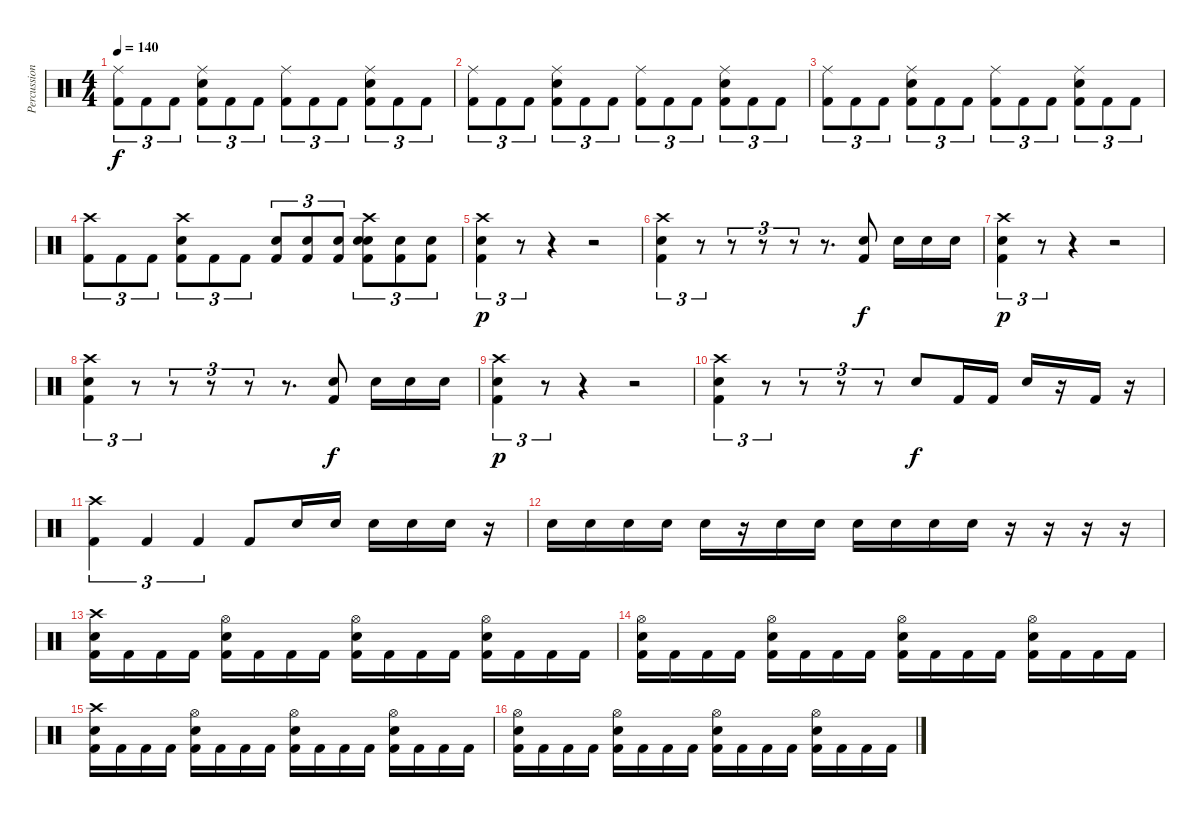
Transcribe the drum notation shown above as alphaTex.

\track ("Percussion" "Percussion") {instrument percussion}
\staff {score}
\articulation defaults
\ts (4 4)
\tempo 140
\clef neutral
\ks c
("Ride (middle)" "Kick (hit) 2").8{tu (3 2) dy f} "Kick (hit) 2".8{tu (3 2)} "Kick (hit) 2".8{tu (3 2)} ("Ride (middle)" "Electric Snare (hit)" "Kick (hit) 2").8{tu (3 2)} "Kick (hit) 2".8{tu (3 2)} "Kick (hit) 2".8{tu (3 2)} ("Ride (middle)" "Kick (hit) 2").8{tu (3 2)} "Kick (hit) 2".8{tu (3 2)} "Kick (hit) 2".8{tu (3 2)} ("Ride (middle)" "Electric Snare (hit)" "Kick (hit) 2").8{tu (3 2)} "Kick (hit) 2".8{tu (3 2)} "Kick (hit) 2".8{tu (3 2)} |
("Ride (middle)" "Kick (hit) 2").8{tu (3 2)} "Kick (hit) 2".8{tu (3 2)} "Kick (hit) 2".8{tu (3 2)} ("Ride (middle)" "Electric Snare (hit)" "Kick (hit) 2").8{tu (3 2)} "Kick (hit) 2".8{tu (3 2)} "Kick (hit) 2".8{tu (3 2)} ("Ride (middle)" "Kick (hit) 2").8{tu (3 2)} "Kick (hit) 2".8{tu (3 2)} "Kick (hit) 2".8{tu (3 2)} ("Ride (middle)" "Electric Snare (hit)" "Kick (hit) 2").8{tu (3 2)} "Kick (hit) 2".8{tu (3 2)} "Kick (hit) 2".8{tu (3 2)} |
("Ride (middle)" "Kick (hit) 2").8{tu (3 2)} "Kick (hit) 2".8{tu (3 2)} "Kick (hit) 2".8{tu (3 2)} ("Ride (middle)" "Electric Snare (hit)" "Kick (hit) 2").8{tu (3 2)} "Kick (hit) 2".8{tu (3 2)} "Kick (hit) 2".8{tu (3 2)} ("Ride (middle)" "Kick (hit) 2").8{tu (3 2)} "Kick (hit) 2".8{tu (3 2)} "Kick (hit) 2".8{tu (3 2)} ("Ride (middle)" "Electric Snare (hit)" "Kick (hit) 2").8{tu (3 2)} "Kick (hit) 2".8{tu (3 2)} "Kick (hit) 2".8{tu (3 2)} |
("Crash high (hit)" "Kick (hit) 2").8{tu (3 2)} "Kick (hit) 2".8{tu (3 2)} "Kick (hit) 2".8{tu (3 2)} ("Crash high (hit)" "Electric Snare (hit)" "Kick (hit) 2").8{tu (3 2)} "Kick (hit) 2".8{tu (3 2)} "Kick (hit) 2".8{tu (3 2)} ("Electric Snare (hit)" "Kick (hit) 2").8{tu (3 2)} ("Electric Snare (hit)" "Kick (hit) 2").8{tu (3 2)} ("Electric Snare (hit)" "Kick (hit) 2").8{tu (3 2)} ("Crash high (hit)" "Electric Snare (hit)" "Electric Snare (hit)" "Kick (hit) 2").8{tu (3 2)} ("Electric Snare (hit)" "Kick (hit) 2").8{tu (3 2)} ("Electric Snare (hit)" "Kick (hit) 2").8{tu (3 2)} |
("Crash high (hit)" "Electric Snare (hit)" "Kick (hit) 2").4{tu (3 2) dy p} r.8{tu (3 2)} r.4 r.2 |
("Crash high (hit)" "Electric Snare (hit)" "Kick (hit) 2").4{tu (3 2)} r.8{tu (3 2)} r.8{tu (3 2)} r.8{tu (3 2)} r.8{tu (3 2)} r.8{d} ("Electric Snare (hit)" "Kick (hit) 2").8{dy f} "Electric Snare (hit)".16 "Electric Snare (hit)".16 "Electric Snare (hit)".16 |
("Crash high (hit)" "Electric Snare (hit)" "Kick (hit) 2").4{tu (3 2) dy p} r.8{tu (3 2)} r.4 r.2 |
("Crash high (hit)" "Electric Snare (hit)" "Kick (hit) 2").4{tu (3 2)} r.8{tu (3 2)} r.8{tu (3 2)} r.8{tu (3 2)} r.8{tu (3 2)} r.8{d} ("Electric Snare (hit)" "Kick (hit) 2").8{dy f} "Electric Snare (hit)".16 "Electric Snare (hit)".16 "Electric Snare (hit)".16 |
("Crash high (hit)" "Electric Snare (hit)" "Kick (hit) 2").4{tu (3 2) dy p} r.8{tu (3 2)} r.4 r.2 |
("Crash high (hit)" "Electric Snare (hit)" "Kick (hit) 2").4{tu (3 2)} r.8{tu (3 2)} r.8{tu (3 2)} r.8{tu (3 2)} r.8{tu (3 2)} "Electric Snare (hit)".8{dy f} "Kick (hit) 2".16 "Kick (hit) 2".16 "Electric Snare (hit)".16 r.16 "Kick (hit) 2".16 r.16 |
("Crash high (hit)" "Kick (hit) 2").4{tu (3 2)} "Kick (hit) 2".4{tu (3 2)} "Kick (hit) 2".4{tu (3 2)} "Kick (hit) 2".8 "Electric Snare (hit)".16 "Electric Snare (hit)".16 "Electric Snare (hit)".16 "Electric Snare (hit)".16 "Electric Snare (hit)".16 r.16 |
"Electric Snare (hit)".16 "Electric Snare (hit)".16 "Electric Snare (hit)".16 "Electric Snare (hit)".16 "Electric Snare (hit)".16 r.16 "Electric Snare (hit)".16 "Electric Snare (hit)".16 "Electric Snare (hit)".16 "Electric Snare (hit)".16 "Electric Snare (hit)".16 "Electric Snare (hit)".16 r.16 r.16 r.16 r.16 |
("Electric Snare (hit)" "Crash high (hit)" "Kick (hit) 2").16 "Kick (hit) 2".16 "Kick (hit) 2".16 "Kick (hit) 2".16 ("Electric Snare (hit)" "Hi-Hat (open)" "Kick (hit) 2").16 "Kick (hit) 2".16 "Kick (hit) 2".16 "Kick (hit) 2".16 ("Electric Snare (hit)" "Hi-Hat (open)" "Kick (hit) 2").16 "Kick (hit) 2".16 "Kick (hit) 2".16 "Kick (hit) 2".16 ("Electric Snare (hit)" "Hi-Hat (open)" "Kick (hit) 2").16 "Kick (hit) 2".16 "Kick (hit) 2".16 "Kick (hit) 2".16 |
("Electric Snare (hit)" "Hi-Hat (open)" "Kick (hit) 2").16 "Kick (hit) 2".16 "Kick (hit) 2".16 "Kick (hit) 2".16 ("Electric Snare (hit)" "Hi-Hat (open)" "Kick (hit) 2").16 "Kick (hit) 2".16 "Kick (hit) 2".16 "Kick (hit) 2".16 ("Electric Snare (hit)" "Hi-Hat (open)" "Kick (hit) 2").16 "Kick (hit) 2".16 "Kick (hit) 2".16 "Kick (hit) 2".16 ("Electric Snare (hit)" "Hi-Hat (open)" "Kick (hit) 2").16 "Kick (hit) 2".16 "Kick (hit) 2".16 "Kick (hit) 2".16 |
("Electric Snare (hit)" "Crash high (hit)" "Kick (hit) 2").16 "Kick (hit) 2".16 "Kick (hit) 2".16 "Kick (hit) 2".16 ("Electric Snare (hit)" "Hi-Hat (open)" "Kick (hit) 2").16 "Kick (hit) 2".16 "Kick (hit) 2".16 "Kick (hit) 2".16 ("Electric Snare (hit)" "Hi-Hat (open)" "Kick (hit) 2").16 "Kick (hit) 2".16 "Kick (hit) 2".16 "Kick (hit) 2".16 ("Electric Snare (hit)" "Hi-Hat (open)" "Kick (hit) 2").16 "Kick (hit) 2".16 "Kick (hit) 2".16 "Kick (hit) 2".16 |
("Electric Snare (hit)" "Hi-Hat (open)" "Kick (hit) 2").16 "Kick (hit) 2".16 "Kick (hit) 2".16 "Kick (hit) 2".16 ("Electric Snare (hit)" "Hi-Hat (open)" "Kick (hit) 2").16 "Kick (hit) 2".16 "Kick (hit) 2".16 "Kick (hit) 2".16 ("Electric Snare (hit)" "Hi-Hat (open)" "Kick (hit) 2").16 "Kick (hit) 2".16 "Kick (hit) 2".16 "Kick (hit) 2".16 ("Electric Snare (hit)" "Hi-Hat (open)" "Kick (hit) 2").16 "Kick (hit) 2".16 "Kick (hit) 2".16 "Kick (hit) 2".16
